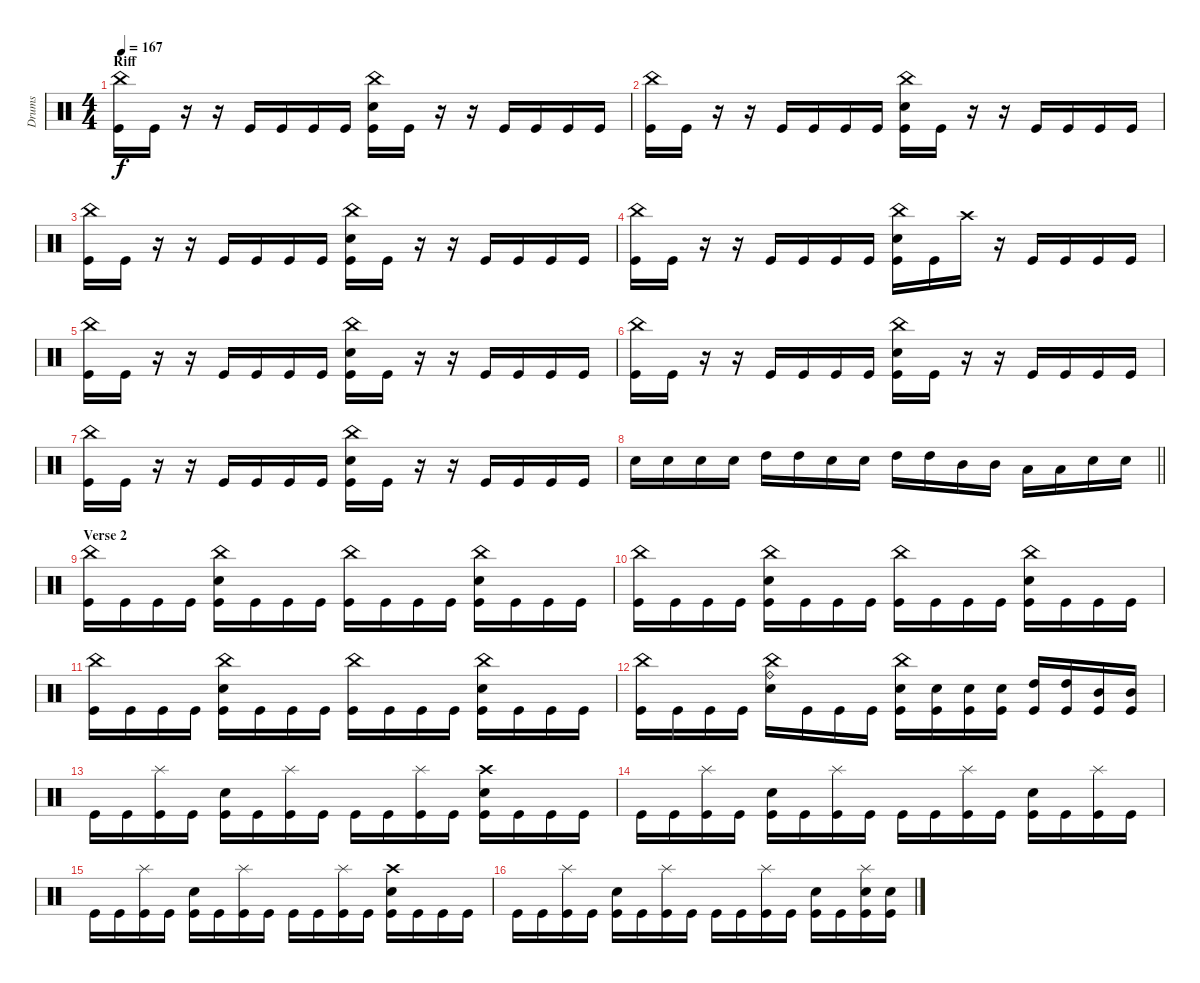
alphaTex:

\track ("Drums" "Drums") {instrument percussion}
\staff {score}
\articulation defaults
\ts (4 4)
\section ("" "Riff")
\tempo 167
\clef neutral
\ks c
("China (hit)" "Kick (hit)").16{dy f} "Kick (hit)".16 r.16 r.16 "Kick (hit)".16 "Kick (hit)".16 "Kick (hit)".16 "Kick (hit)".16 ("China (hit)" "Snare (hit) 2" "Kick (hit)").16 "Kick (hit)".16 r.16 r.16 "Kick (hit)".16 "Kick (hit)".16 "Kick (hit)".16 "Kick (hit)".16 |
("China (hit)" "Kick (hit)").16 "Kick (hit)".16 r.16 r.16 "Kick (hit)".16 "Kick (hit)".16 "Kick (hit)".16 "Kick (hit)".16 ("China (hit)" "Snare (hit) 2" "Kick (hit)").16 "Kick (hit)".16 r.16 r.16 "Kick (hit)".16 "Kick (hit)".16 "Kick (hit)".16 "Kick (hit)".16 |
("China (hit)" "Kick (hit)").16 "Kick (hit)".16 r.16 r.16 "Kick (hit)".16 "Kick (hit)".16 "Kick (hit)".16 "Kick (hit)".16 ("China (hit)" "Snare (hit) 2" "Kick (hit)").16 "Kick (hit)".16 r.16 r.16 "Kick (hit)".16 "Kick (hit)".16 "Kick (hit)".16 "Kick (hit)".16 |
("China (hit)" "Kick (hit)").16 "Kick (hit)".16 r.16 r.16 "Kick (hit)".16 "Kick (hit)".16 "Kick (hit)".16 "Kick (hit)".16 ("China (hit)" "Snare (hit) 2" "Kick (hit)").16 "Kick (hit)".16 "Crash high (hit)".16 r.16 "Kick (hit)".16 "Kick (hit)".16 "Kick (hit)".16 "Kick (hit)".16 |
("China (hit)" "Kick (hit)").16 "Kick (hit)".16 r.16 r.16 "Kick (hit)".16 "Kick (hit)".16 "Kick (hit)".16 "Kick (hit)".16 ("China (hit)" "Snare (hit) 2" "Kick (hit)").16 "Kick (hit)".16 r.16 r.16 "Kick (hit)".16 "Kick (hit)".16 "Kick (hit)".16 "Kick (hit)".16 |
("China (hit)" "Kick (hit)").16 "Kick (hit)".16 r.16 r.16 "Kick (hit)".16 "Kick (hit)".16 "Kick (hit)".16 "Kick (hit)".16 ("China (hit)" "Snare (hit) 2" "Kick (hit)").16 "Kick (hit)".16 r.16 r.16 "Kick (hit)".16 "Kick (hit)".16 "Kick (hit)".16 "Kick (hit)".16 |
("China (hit)" "Kick (hit)").16 "Kick (hit)".16 r.16 r.16 "Kick (hit)".16 "Kick (hit)".16 "Kick (hit)".16 "Kick (hit)".16 ("China (hit)" "Snare (hit) 2" "Kick (hit)").16 "Kick (hit)".16 r.16 r.16 "Kick (hit)".16 "Kick (hit)".16 "Kick (hit)".16 "Kick (hit)".16 |
\barLineRight lightlight "Snare (hit) 2".16 "Snare (hit) 2".16 "Snare (hit) 2".16 "Snare (hit) 2".16 "High Tom (hit)".16 "High Tom (hit)".16 "Snare (hit) 2".16 "Snare (hit) 2".16 "High Tom (hit)".16 "High Tom (hit)".16 "Mid Tom (hit)".16 "Mid Tom (hit)".16 "Low Tom (hit)".16 "Low Tom (hit)".16 "Snare (hit) 2".16 "Snare (hit) 2".16
|
\section ("" "Verse 2")
("China (hit)" "Kick (hit)").16 "Kick (hit)".16 "Kick (hit)".16 "Kick (hit)".16 ("China (hit)" "Snare (hit) 2" "Kick (hit)").16 "Kick (hit)".16 "Kick (hit)".16 "Kick (hit)".16 ("China (hit)" "Kick (hit)").16 "Kick (hit)".16 "Kick (hit)".16 "Kick (hit)".16 ("China (hit)" "Snare (hit) 2" "Kick (hit)").16 "Kick (hit)".16 "Kick (hit)".16 "Kick (hit)".16 |
("China (hit)" "Kick (hit)").16 "Kick (hit)".16 "Kick (hit)".16 "Kick (hit)".16 ("China (hit)" "Snare (hit) 2" "Kick (hit)").16 "Kick (hit)".16 "Kick (hit)".16 "Kick (hit)".16 ("China (hit)" "Kick (hit)").16 "Kick (hit)".16 "Kick (hit)".16 "Kick (hit)".16 ("China (hit)" "Snare (hit) 2" "Kick (hit)").16 "Kick (hit)".16 "Kick (hit)".16 "Kick (hit)".16 |
("China (hit)" "Kick (hit)").16 "Kick (hit)".16 "Kick (hit)".16 "Kick (hit)".16 ("China (hit)" "Snare (hit) 2" "Kick (hit)").16 "Kick (hit)".16 "Kick (hit)".16 "Kick (hit)".16 ("China (hit)" "Kick (hit)").16 "Kick (hit)".16 "Kick (hit)".16 "Kick (hit)".16 ("China (hit)" "Snare (hit) 2" "Kick (hit)").16 "Kick (hit)".16 "Kick (hit)".16 "Kick (hit)".16 |
("China (hit)" "Kick (hit)").16 "Kick (hit)".16 "Kick (hit)".16 "Kick (hit)".16 ("China (hit)" "Snare (hit) 2" "Ride (bell)").16 "Kick (hit)".16 "Kick (hit)".16 "Kick (hit)".16 ("China (hit)" "Snare (hit) 2" "Kick (hit)").16 ("Snare (hit) 2" "Kick (hit)").16 ("Snare (hit) 2" "Kick (hit)").16 ("Snare (hit) 2" "Kick (hit)").16 ("High Tom (hit)" "Kick (hit)").16 ("High Tom (hit)" "Kick (hit)").16 ("Mid Tom (hit)" "Kick (hit)").16 ("Mid Tom (hit)" "Kick (hit)").16 |
"Kick (hit)".16 "Kick (hit)".16 ("Splash (hit)" "Kick (hit)").16 "Kick (hit)".16 ("Snare (hit) 2" "Kick (hit)").16 "Kick (hit)".16 ("Splash (hit)" "Kick (hit)").16 "Kick (hit)".16 "Kick (hit)".16 "Kick (hit)".16 ("Splash (hit)" "Kick (hit)").16 "Kick (hit)".16 ("Crash high (hit)" "Snare (hit) 2" "Kick (hit)").16 "Kick (hit)".16 "Kick (hit)".16 "Kick (hit)".16 |
"Kick (hit)".16 "Kick (hit)".16 ("Splash (hit)" "Kick (hit)").16 "Kick (hit)".16 ("Snare (hit) 2" "Kick (hit)").16 "Kick (hit)".16 ("Splash (hit)" "Kick (hit)").16 "Kick (hit)".16 "Kick (hit)".16 "Kick (hit)".16 ("Splash (hit)" "Kick (hit)").16 "Kick (hit)".16 ("Snare (hit) 2" "Kick (hit)").16 "Kick (hit)".16 ("Splash (hit)" "Kick (hit)").16 "Kick (hit)".16 |
"Kick (hit)".16 "Kick (hit)".16 ("Splash (hit)" "Kick (hit)").16 "Kick (hit)".16 ("Snare (hit) 2" "Kick (hit)").16 "Kick (hit)".16 ("Splash (hit)" "Kick (hit)").16 "Kick (hit)".16 "Kick (hit)".16 "Kick (hit)".16 ("Splash (hit)" "Kick (hit)").16 "Kick (hit)".16 ("Crash high (hit)" "Snare (hit) 2" "Kick (hit)").16 "Kick (hit)".16 "Kick (hit)".16 "Kick (hit)".16 |
"Kick (hit)".16 "Kick (hit)".16 ("Splash (hit)" "Kick (hit)").16 "Kick (hit)".16 ("Snare (hit) 2" "Kick (hit)").16 "Kick (hit)".16 ("Splash (hit)" "Kick (hit)").16 "Kick (hit)".16 "Kick (hit)".16 "Kick (hit)".16 ("Splash (hit)" "Kick (hit)").16 "Kick (hit)".16 ("Snare (hit) 2" "Kick (hit)").16 "Kick (hit)".16 ("Splash (hit)" "Snare (hit) 2" "Kick (hit)").16 ("Snare (hit) 2" "Kick (hit)").16
